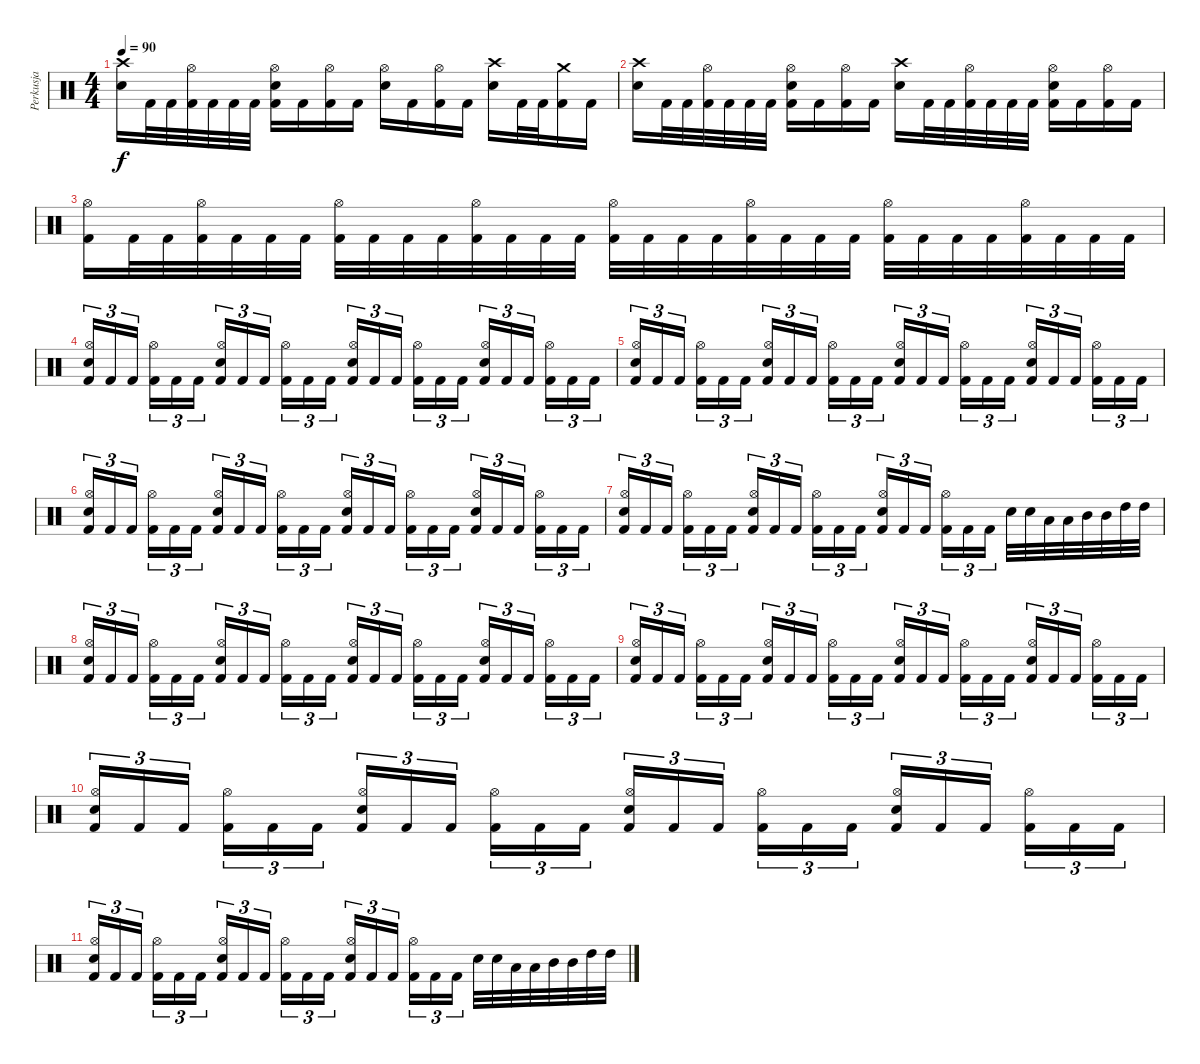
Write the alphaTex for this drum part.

\track ("Perkusja" "Perkusja") {instrument percussion}
\staff {score}
\articulation defaults
\ts (4 4)
\tempo 90
\clef neutral
\ks c
("Crash high (hit)" "Electric Snare (hit)").16{dy f} "Kick (hit) 2".32 "Kick (hit) 2".32 ("Hi-Hat (open)" "Kick (hit) 2").32 "Kick (hit) 2".32 "Kick (hit) 2".32 "Kick (hit) 2".32 ("Hi-Hat (open)" "Electric Snare (hit)" "Kick (hit) 2").16 "Kick (hit) 2".16 ("Hi-Hat (open)" "Kick (hit) 2").16 "Kick (hit) 2".16 ("Hi-Hat (open)" "Electric Snare (hit)").16 "Kick (hit) 2".16 ("Hi-Hat (open)" "Kick (hit) 2").16 "Kick (hit) 2".16 ("Crash high (hit)" "Electric Snare (hit)").16 "Kick (hit) 2".32 "Kick (hit) 2".32 ("Crash medium (hit)" "Kick (hit) 2").16 "Kick (hit) 2".16 |
("Crash high (hit)" "Electric Snare (hit)").16 "Kick (hit) 2".32 "Kick (hit) 2".32 ("Hi-Hat (open)" "Kick (hit) 2").32 "Kick (hit) 2".32 "Kick (hit) 2".32 "Kick (hit) 2".32 ("Hi-Hat (open)" "Electric Snare (hit)" "Kick (hit) 2").16 "Kick (hit) 2".16 ("Hi-Hat (open)" "Kick (hit) 2").16 "Kick (hit) 2".16 ("Crash high (hit)" "Electric Snare (hit)").16 "Kick (hit) 2".32 "Kick (hit) 2".32 ("Hi-Hat (open)" "Kick (hit) 2").32 "Kick (hit) 2".32 "Kick (hit) 2".32 "Kick (hit) 2".32 ("Hi-Hat (open)" "Electric Snare (hit)" "Kick (hit) 2").16 "Kick (hit) 2".16 ("Hi-Hat (open)" "Kick (hit) 2").16 "Kick (hit) 2".16 |
("Hi-Hat (open)" "Kick (hit) 2").16 "Kick (hit) 2".32 "Kick (hit) 2".32 ("Hi-Hat (open)" "Kick (hit) 2").32 "Kick (hit) 2".32 "Kick (hit) 2".32 "Kick (hit) 2".32 ("Hi-Hat (open)" "Kick (hit) 2").32 "Kick (hit) 2".32 "Kick (hit) 2".32 "Kick (hit) 2".32 ("Hi-Hat (open)" "Kick (hit) 2").32 "Kick (hit) 2".32 "Kick (hit) 2".32 "Kick (hit) 2".32 ("Hi-Hat (open)" "Kick (hit) 2").32 "Kick (hit) 2".32 "Kick (hit) 2".32 "Kick (hit) 2".32 ("Hi-Hat (open)" "Kick (hit) 2").32 "Kick (hit) 2".32 "Kick (hit) 2".32 "Kick (hit) 2".32 ("Hi-Hat (open)" "Kick (hit) 2").32 "Kick (hit) 2".32 "Kick (hit) 2".32 "Kick (hit) 2".32 ("Hi-Hat (open)" "Kick (hit) 2").32 "Kick (hit) 2".32 "Kick (hit) 2".32 "Kick (hit) 2".32 |
("Kick (hit) 2" "Snare (hit) 2" "Hi-Hat (open)").16{tu (3 2)} "Kick (hit) 2".16{tu (3 2)} "Kick (hit) 2".16{tu (3 2)} ("Kick (hit) 2" "Hi-Hat (open)").16{tu (3 2)} "Kick (hit) 2".16{tu (3 2)} "Kick (hit) 2".16{tu (3 2)} ("Kick (hit) 2" "Snare (hit) 2" "Hi-Hat (open)").16{tu (3 2)} "Kick (hit) 2".16{tu (3 2)} "Kick (hit) 2".16{tu (3 2)} ("Kick (hit) 2" "Hi-Hat (open)").16{tu (3 2)} "Kick (hit) 2".16{tu (3 2)} "Kick (hit) 2".16{tu (3 2)} ("Kick (hit) 2" "Snare (hit) 2" "Hi-Hat (open)").16{tu (3 2)} "Kick (hit) 2".16{tu (3 2)} "Kick (hit) 2".16{tu (3 2)} ("Kick (hit) 2" "Hi-Hat (open)").16{tu (3 2)} "Kick (hit) 2".16{tu (3 2)} "Kick (hit) 2".16{tu (3 2)} ("Kick (hit) 2" "Snare (hit) 2" "Hi-Hat (open)").16{tu (3 2)} "Kick (hit) 2".16{tu (3 2)} "Kick (hit) 2".16{tu (3 2)} ("Kick (hit) 2" "Hi-Hat (open)").16{tu (3 2)} "Kick (hit) 2".16{tu (3 2)} "Kick (hit) 2".16{tu (3 2)} |
("Kick (hit) 2" "Snare (hit) 2" "Hi-Hat (open)").16{tu (3 2)} "Kick (hit) 2".16{tu (3 2)} "Kick (hit) 2".16{tu (3 2)} ("Kick (hit) 2" "Hi-Hat (open)").16{tu (3 2)} "Kick (hit) 2".16{tu (3 2)} "Kick (hit) 2".16{tu (3 2)} ("Kick (hit) 2" "Snare (hit) 2" "Hi-Hat (open)").16{tu (3 2)} "Kick (hit) 2".16{tu (3 2)} "Kick (hit) 2".16{tu (3 2)} ("Kick (hit) 2" "Hi-Hat (open)").16{tu (3 2)} "Kick (hit) 2".16{tu (3 2)} "Kick (hit) 2".16{tu (3 2)} ("Kick (hit) 2" "Snare (hit) 2" "Hi-Hat (open)").16{tu (3 2)} "Kick (hit) 2".16{tu (3 2)} "Kick (hit) 2".16{tu (3 2)} ("Kick (hit) 2" "Hi-Hat (open)").16{tu (3 2)} "Kick (hit) 2".16{tu (3 2)} "Kick (hit) 2".16{tu (3 2)} ("Kick (hit) 2" "Snare (hit) 2" "Hi-Hat (open)").16{tu (3 2)} "Kick (hit) 2".16{tu (3 2)} "Kick (hit) 2".16{tu (3 2)} ("Kick (hit) 2" "Hi-Hat (open)").16{tu (3 2)} "Kick (hit) 2".16{tu (3 2)} "Kick (hit) 2".16{tu (3 2)} |
("Kick (hit) 2" "Snare (hit) 2" "Hi-Hat (open)").16{tu (3 2)} "Kick (hit) 2".16{tu (3 2)} "Kick (hit) 2".16{tu (3 2)} ("Kick (hit) 2" "Hi-Hat (open)").16{tu (3 2)} "Kick (hit) 2".16{tu (3 2)} "Kick (hit) 2".16{tu (3 2)} ("Kick (hit) 2" "Snare (hit) 2" "Hi-Hat (open)").16{tu (3 2)} "Kick (hit) 2".16{tu (3 2)} "Kick (hit) 2".16{tu (3 2)} ("Kick (hit) 2" "Hi-Hat (open)").16{tu (3 2)} "Kick (hit) 2".16{tu (3 2)} "Kick (hit) 2".16{tu (3 2)} ("Kick (hit) 2" "Snare (hit) 2" "Hi-Hat (open)").16{tu (3 2)} "Kick (hit) 2".16{tu (3 2)} "Kick (hit) 2".16{tu (3 2)} ("Kick (hit) 2" "Hi-Hat (open)").16{tu (3 2)} "Kick (hit) 2".16{tu (3 2)} "Kick (hit) 2".16{tu (3 2)} ("Kick (hit) 2" "Snare (hit) 2" "Hi-Hat (open)").16{tu (3 2)} "Kick (hit) 2".16{tu (3 2)} "Kick (hit) 2".16{tu (3 2)} ("Kick (hit) 2" "Hi-Hat (open)").16{tu (3 2)} "Kick (hit) 2".16{tu (3 2)} "Kick (hit) 2".16{tu (3 2)} |
("Kick (hit) 2" "Snare (hit) 2" "Hi-Hat (open)").16{tu (3 2)} "Kick (hit) 2".16{tu (3 2)} "Kick (hit) 2".16{tu (3 2)} ("Kick (hit) 2" "Hi-Hat (open)").16{tu (3 2)} "Kick (hit) 2".16{tu (3 2)} "Kick (hit) 2".16{tu (3 2)} ("Kick (hit) 2" "Snare (hit) 2" "Hi-Hat (open)").16{tu (3 2)} "Kick (hit) 2".16{tu (3 2)} "Kick (hit) 2".16{tu (3 2)} ("Kick (hit) 2" "Hi-Hat (open)").16{tu (3 2)} "Kick (hit) 2".16{tu (3 2)} "Kick (hit) 2".16{tu (3 2)} ("Kick (hit) 2" "Snare (hit) 2" "Hi-Hat (open)").16{tu (3 2)} "Kick (hit) 2".16{tu (3 2)} "Kick (hit) 2".16{tu (3 2)} ("Kick (hit) 2" "Hi-Hat (open)").16{tu (3 2)} "Kick (hit) 2".16{tu (3 2)} "Kick (hit) 2".16{tu (3 2)} "Snare (hit) 2".32 "Snare (hit) 2".32 "Low Tom (hit)".32 "Low Tom (hit)".32 "Mid Tom (hit)".32 "Mid Tom (hit)".32 "High Tom (hit)".32 "High Tom (hit)".32 |
("Kick (hit) 2" "Snare (hit) 2" "Hi-Hat (open)").16{tu (3 2)} "Kick (hit) 2".16{tu (3 2)} "Kick (hit) 2".16{tu (3 2)} ("Kick (hit) 2" "Hi-Hat (open)").16{tu (3 2)} "Kick (hit) 2".16{tu (3 2)} "Kick (hit) 2".16{tu (3 2)} ("Kick (hit) 2" "Snare (hit) 2" "Hi-Hat (open)").16{tu (3 2)} "Kick (hit) 2".16{tu (3 2)} "Kick (hit) 2".16{tu (3 2)} ("Kick (hit) 2" "Hi-Hat (open)").16{tu (3 2)} "Kick (hit) 2".16{tu (3 2)} "Kick (hit) 2".16{tu (3 2)} ("Kick (hit) 2" "Snare (hit) 2" "Hi-Hat (open)").16{tu (3 2)} "Kick (hit) 2".16{tu (3 2)} "Kick (hit) 2".16{tu (3 2)} ("Kick (hit) 2" "Hi-Hat (open)").16{tu (3 2)} "Kick (hit) 2".16{tu (3 2)} "Kick (hit) 2".16{tu (3 2)} ("Kick (hit) 2" "Snare (hit) 2" "Hi-Hat (open)").16{tu (3 2)} "Kick (hit) 2".16{tu (3 2)} "Kick (hit) 2".16{tu (3 2)} ("Kick (hit) 2" "Hi-Hat (open)").16{tu (3 2)} "Kick (hit) 2".16{tu (3 2)} "Kick (hit) 2".16{tu (3 2)} |
("Kick (hit) 2" "Snare (hit) 2" "Hi-Hat (open)").16{tu (3 2)} "Kick (hit) 2".16{tu (3 2)} "Kick (hit) 2".16{tu (3 2)} ("Kick (hit) 2" "Hi-Hat (open)").16{tu (3 2)} "Kick (hit) 2".16{tu (3 2)} "Kick (hit) 2".16{tu (3 2)} ("Kick (hit) 2" "Snare (hit) 2" "Hi-Hat (open)").16{tu (3 2)} "Kick (hit) 2".16{tu (3 2)} "Kick (hit) 2".16{tu (3 2)} ("Kick (hit) 2" "Hi-Hat (open)").16{tu (3 2)} "Kick (hit) 2".16{tu (3 2)} "Kick (hit) 2".16{tu (3 2)} ("Kick (hit) 2" "Snare (hit) 2" "Hi-Hat (open)").16{tu (3 2)} "Kick (hit) 2".16{tu (3 2)} "Kick (hit) 2".16{tu (3 2)} ("Kick (hit) 2" "Hi-Hat (open)").16{tu (3 2)} "Kick (hit) 2".16{tu (3 2)} "Kick (hit) 2".16{tu (3 2)} ("Kick (hit) 2" "Snare (hit) 2" "Hi-Hat (open)").16{tu (3 2)} "Kick (hit) 2".16{tu (3 2)} "Kick (hit) 2".16{tu (3 2)} ("Kick (hit) 2" "Hi-Hat (open)").16{tu (3 2)} "Kick (hit) 2".16{tu (3 2)} "Kick (hit) 2".16{tu (3 2)} |
("Kick (hit) 2" "Snare (hit) 2" "Hi-Hat (open)").16{tu (3 2)} "Kick (hit) 2".16{tu (3 2)} "Kick (hit) 2".16{tu (3 2)} ("Kick (hit) 2" "Hi-Hat (open)").16{tu (3 2)} "Kick (hit) 2".16{tu (3 2)} "Kick (hit) 2".16{tu (3 2)} ("Kick (hit) 2" "Snare (hit) 2" "Hi-Hat (open)").16{tu (3 2)} "Kick (hit) 2".16{tu (3 2)} "Kick (hit) 2".16{tu (3 2)} ("Kick (hit) 2" "Hi-Hat (open)").16{tu (3 2)} "Kick (hit) 2".16{tu (3 2)} "Kick (hit) 2".16{tu (3 2)} ("Kick (hit) 2" "Snare (hit) 2" "Hi-Hat (open)").16{tu (3 2)} "Kick (hit) 2".16{tu (3 2)} "Kick (hit) 2".16{tu (3 2)} ("Kick (hit) 2" "Hi-Hat (open)").16{tu (3 2)} "Kick (hit) 2".16{tu (3 2)} "Kick (hit) 2".16{tu (3 2)} ("Kick (hit) 2" "Snare (hit) 2" "Hi-Hat (open)").16{tu (3 2)} "Kick (hit) 2".16{tu (3 2)} "Kick (hit) 2".16{tu (3 2)} ("Kick (hit) 2" "Hi-Hat (open)").16{tu (3 2)} "Kick (hit) 2".16{tu (3 2)} "Kick (hit) 2".16{tu (3 2)} |
("Kick (hit) 2" "Snare (hit) 2" "Hi-Hat (open)").16{tu (3 2)} "Kick (hit) 2".16{tu (3 2)} "Kick (hit) 2".16{tu (3 2)} ("Kick (hit) 2" "Hi-Hat (open)").16{tu (3 2)} "Kick (hit) 2".16{tu (3 2)} "Kick (hit) 2".16{tu (3 2)} ("Kick (hit) 2" "Snare (hit) 2" "Hi-Hat (open)").16{tu (3 2)} "Kick (hit) 2".16{tu (3 2)} "Kick (hit) 2".16{tu (3 2)} ("Kick (hit) 2" "Hi-Hat (open)").16{tu (3 2)} "Kick (hit) 2".16{tu (3 2)} "Kick (hit) 2".16{tu (3 2)} ("Kick (hit) 2" "Snare (hit) 2" "Hi-Hat (open)").16{tu (3 2)} "Kick (hit) 2".16{tu (3 2)} "Kick (hit) 2".16{tu (3 2)} ("Kick (hit) 2" "Hi-Hat (open)").16{tu (3 2)} "Kick (hit) 2".16{tu (3 2)} "Kick (hit) 2".16{tu (3 2)} "Snare (hit) 2".32 "Snare (hit) 2".32 "Low Tom (hit)".32 "Low Tom (hit)".32 "Mid Tom (hit)".32 "Mid Tom (hit)".32 "High Tom (hit)".32 "High Tom (hit)".32
